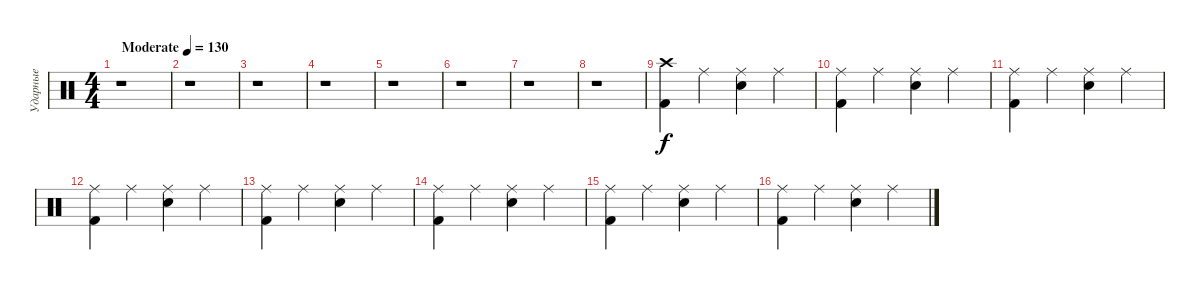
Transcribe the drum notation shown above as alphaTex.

\track ("Ударные" "Ударные") {instrument percussion}
\staff {score}
\articulation defaults
\ts (4 4)
\tempo (130 "Moderate")
\clef neutral
\ks c
r.1{dy f} |
r.1 |
r.1 |
r.1 |
r.1 |
r.1 |
r.1 |
r.1 |
("Crash high (hit)" "Kick (hit) 2").4 "Ride (middle)".4 ("Ride (middle)" "Electric Snare (hit)").4 "Ride (middle)".4 |
("Ride (middle)" "Kick (hit) 2").4 "Ride (middle)".4 ("Ride (middle)" "Electric Snare (hit)").4 "Ride (middle)".4 |
("Ride (middle)" "Kick (hit) 2").4 "Ride (middle)".4 ("Ride (middle)" "Electric Snare (hit)").4 "Ride (middle)".4 |
("Ride (middle)" "Kick (hit) 2").4 "Ride (middle)".4 ("Ride (middle)" "Electric Snare (hit)").4 "Ride (middle)".4 |
("Ride (middle)" "Kick (hit) 2").4 "Ride (middle)".4 ("Ride (middle)" "Electric Snare (hit)").4 "Ride (middle)".4 |
("Ride (middle)" "Kick (hit) 2").4 "Ride (middle)".4 ("Ride (middle)" "Electric Snare (hit)").4 "Ride (middle)".4 |
("Ride (middle)" "Kick (hit) 2").4 "Ride (middle)".4 ("Ride (middle)" "Electric Snare (hit)").4 "Ride (middle)".4 |
("Ride (middle)" "Kick (hit) 2").4 "Ride (middle)".4 ("Ride (middle)" "Electric Snare (hit)").4 "Ride (middle)".4
